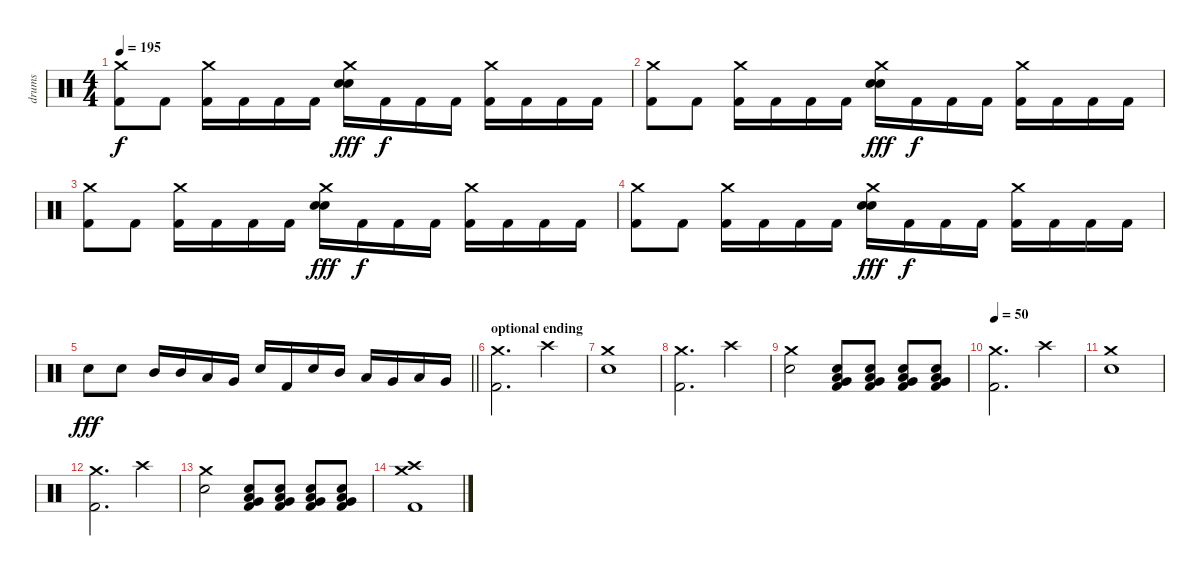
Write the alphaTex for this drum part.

\track ("drums" "drums") {instrument percussion bank 16}
\staff {score}
\articulation defaults
\ts (4 4)
\tempo 195
\clef neutral
\ks c
("Crash medium (hit)" "Kick (hit) 2").8{dy f} "Kick (hit) 2".8 ("Crash medium (hit)" "Kick (hit) 2").16 "Kick (hit) 2".16 "Kick (hit) 2".16 "Kick (hit) 2".16 ("Crash medium (hit)" "Electric Snare (hit)" "Electric Snare (hit)").16{dy fff} "Kick (hit) 2".16{dy f} "Kick (hit) 2".16 "Kick (hit) 2".16 ("Crash medium (hit)" "Kick (hit) 2").16 "Kick (hit) 2".16 "Kick (hit) 2".16 "Kick (hit) 2".16 |
("Crash medium (hit)" "Kick (hit) 2").8 "Kick (hit) 2".8 ("Crash medium (hit)" "Kick (hit) 2").16 "Kick (hit) 2".16 "Kick (hit) 2".16 "Kick (hit) 2".16 ("Crash medium (hit)" "Electric Snare (hit)" "Electric Snare (hit)").16{dy fff} "Kick (hit) 2".16{dy f} "Kick (hit) 2".16 "Kick (hit) 2".16 ("Crash medium (hit)" "Kick (hit) 2").16 "Kick (hit) 2".16 "Kick (hit) 2".16 "Kick (hit) 2".16 |
("Crash medium (hit)" "Kick (hit) 2").8 "Kick (hit) 2".8 ("Crash medium (hit)" "Kick (hit) 2").16 "Kick (hit) 2".16 "Kick (hit) 2".16 "Kick (hit) 2".16 ("Crash medium (hit)" "Electric Snare (hit)" "Electric Snare (hit)").16{dy fff} "Kick (hit) 2".16{dy f} "Kick (hit) 2".16 "Kick (hit) 2".16 ("Crash medium (hit)" "Kick (hit) 2").16 "Kick (hit) 2".16 "Kick (hit) 2".16 "Kick (hit) 2".16 |
("Crash medium (hit)" "Kick (hit) 2").8 "Kick (hit) 2".8 ("Crash medium (hit)" "Kick (hit) 2").16 "Kick (hit) 2".16 "Kick (hit) 2".16 "Kick (hit) 2".16 ("Crash medium (hit)" "Electric Snare (hit)" "Electric Snare (hit)").16{dy fff} "Kick (hit) 2".16{dy f} "Kick (hit) 2".16 "Kick (hit) 2".16 ("Crash medium (hit)" "Kick (hit) 2").16 "Kick (hit) 2".16 "Kick (hit) 2".16 "Kick (hit) 2".16 |
\barLineRight lightlight "Electric Snare (hit)".8{dy fff} "Electric Snare (hit)".8 "Mid Tom (hit)".16 "Mid Tom (hit)".16 "Low Tom (hit)".16 "Very Low Tom (hit)".16 "Electric Snare (hit)".16 "Kick (hit) 2".16 "Electric Snare (hit)".16 "Mid Tom (hit)".16 "Low Tom (hit)".16 "Very Low Tom (hit)".16 "Low Tom (hit)".16 "Very Low Tom (hit)".16
|
\section ("" "optional ending")
("Crash medium (hit)" "Kick (hit) 2").2{d} "Crash high (hit)".4 |
("Crash medium (hit)" "Electric Snare (hit)").1 |
("Crash medium (hit)" "Kick (hit) 2").2{d} "Crash high (hit)".4 |
("Crash medium (hit)" "Electric Snare (hit)").2 ("Low Tom (hit)" "Very Low Tom (hit)" "Electric Snare (hit)" "Kick (hit) 2").8 ("Low Tom (hit)" "Very Low Tom (hit)" "Electric Snare (hit)" "Kick (hit) 2").8 ("Low Tom (hit)" "Very Low Tom (hit)" "Electric Snare (hit)" "Kick (hit) 2").8 ("Low Tom (hit)" "Very Low Tom (hit)" "Electric Snare (hit)" "Kick (hit) 2").8 |
\tempo 50
("Crash medium (hit)" "Kick (hit) 2").2{d} "Crash high (hit)".4 |
("Crash medium (hit)" "Electric Snare (hit)").1 |
("Crash medium (hit)" "Kick (hit) 2").2{d} "Crash high (hit)".4 |
("Crash medium (hit)" "Electric Snare (hit)").2 ("Low Tom (hit)" "Very Low Tom (hit)" "Electric Snare (hit)" "Kick (hit) 2").8 ("Low Tom (hit)" "Very Low Tom (hit)" "Electric Snare (hit)" "Kick (hit) 2").8 ("Low Tom (hit)" "Very Low Tom (hit)" "Electric Snare (hit)" "Kick (hit) 2").8 ("Low Tom (hit)" "Very Low Tom (hit)" "Electric Snare (hit)" "Kick (hit) 2").8 |
("Crash medium (hit)" "Crash high (hit)" "Kick (hit) 2").1
